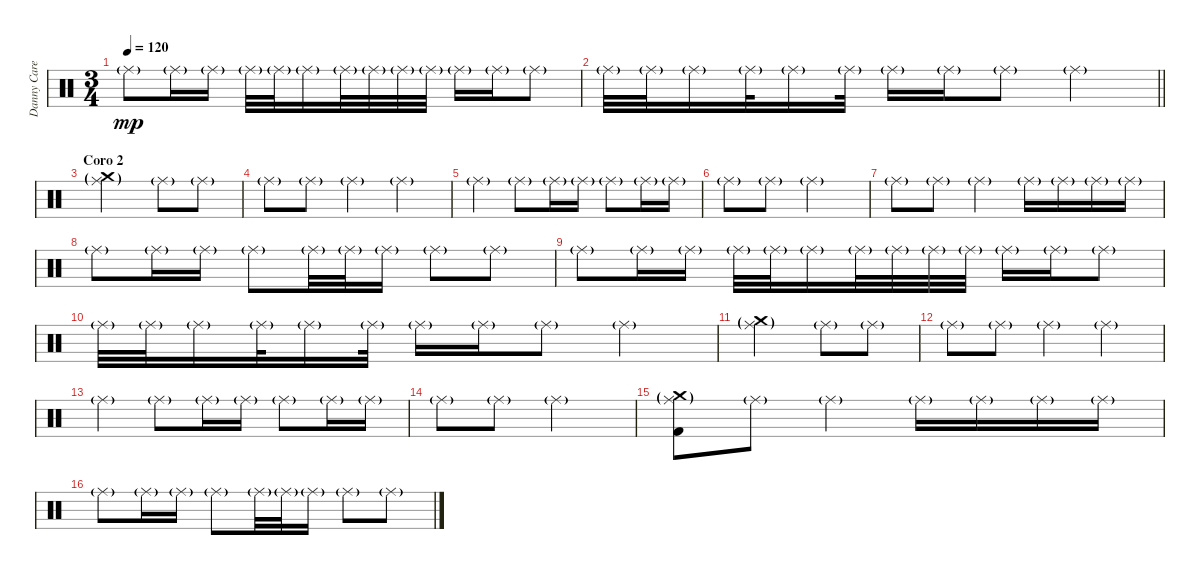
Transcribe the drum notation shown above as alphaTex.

\track ("Danny Carey" "Danny Care") {instrument percussion}
\staff {score}
\articulation defaults
\ts (3 4)
\tempo 120
\clef neutral
\ks c "Ride (middle)"{g}.8{dy mp} "Ride (middle)"{g}.16 "Ride (middle)"{g}.16 "Ride (middle)"{g}.32 "Ride (middle)"{g}.32 "Ride (middle)"{g}.16 "Ride (middle)"{g}.32 "Ride (middle)"{g}.32 "Ride (middle)"{g}.32 "Ride (middle)"{g}.32 "Ride (middle)"{g}.16 "Ride (middle)"{g}.16 "Ride (middle)"{g}.8
|
\barLineRight lightlight "Ride (middle)"{g}.32 "Ride (middle)"{g}.32 "Ride (middle)"{g}.16 "Ride (middle)"{g}.32 "Ride (middle)"{g}.16 "Ride (middle)"{g}.32 "Ride (middle)"{g}.16 "Ride (middle)"{g}.16 "Ride (middle)"{g}.8 "Ride (middle)"{g}.4
|
\section ("" "Coro 2")
("Crash medium (hit)"{g} "Ride (middle)"{g}).2 "Ride (middle)"{g}.8 "Ride (middle)"{g}.8 |
"Ride (middle)"{g}.8 "Ride (middle)"{g}.8 "Ride (middle)"{g}.4 "Ride (middle)"{g}.4 |
"Ride (middle)"{g}.4 "Ride (middle)"{g}.8 "Ride (middle)"{g}.16 "Ride (middle)"{g}.16 "Ride (middle)"{g}.8 "Ride (middle)"{g}.16 "Ride (middle)"{g}.16 |
"Ride (middle)"{g}.8 "Ride (middle)"{g}.8 "Ride (middle)"{g}.2 |
"Ride (middle)"{g}.8 "Ride (middle)"{g}.8 "Ride (middle)"{g}.4 "Ride (middle)"{g}.16 "Ride (middle)"{g}.16 "Ride (middle)"{g}.16 "Ride (middle)"{g}.16 |
"Ride (middle)"{g}.8 "Ride (middle)"{g}.16 "Ride (middle)"{g}.16 "Ride (middle)"{g}.8 "Ride (middle)"{g}.32 "Ride (middle)"{g}.32 "Ride (middle)"{g}.16 "Ride (middle)"{g}.8 "Ride (middle)"{g}.8 |
"Ride (middle)"{g}.8 "Ride (middle)"{g}.16 "Ride (middle)"{g}.16 "Ride (middle)"{g}.32 "Ride (middle)"{g}.32 "Ride (middle)"{g}.16 "Ride (middle)"{g}.32 "Ride (middle)"{g}.32 "Ride (middle)"{g}.32 "Ride (middle)"{g}.32 "Ride (middle)"{g}.16 "Ride (middle)"{g}.16 "Ride (middle)"{g}.8 |
"Ride (middle)"{g}.32 "Ride (middle)"{g}.32 "Ride (middle)"{g}.16 "Ride (middle)"{g}.32 "Ride (middle)"{g}.16 "Ride (middle)"{g}.32 "Ride (middle)"{g}.16 "Ride (middle)"{g}.16 "Ride (middle)"{g}.8 "Ride (middle)"{g}.4 |
("Crash medium (hit)"{g} "Ride (middle)"{g}).2 "Ride (middle)"{g}.8 "Ride (middle)"{g}.8 |
"Ride (middle)"{g}.8 "Ride (middle)"{g}.8 "Ride (middle)"{g}.4 "Ride (middle)"{g}.4 |
"Ride (middle)"{g}.4 "Ride (middle)"{g}.8 "Ride (middle)"{g}.16 "Ride (middle)"{g}.16 "Ride (middle)"{g}.8 "Ride (middle)"{g}.16 "Ride (middle)"{g}.16 |
"Ride (middle)"{g}.8 "Ride (middle)"{g}.8 "Ride (middle)"{g}.2 |
("Crash medium (hit)"{g} "Ride (middle)"{g} "Kick (hit) 2").8 "Ride (middle)"{g}.8 "Ride (middle)"{g}.4 "Ride (middle)"{g}.16 "Ride (middle)"{g}.16 "Ride (middle)"{g}.16 "Ride (middle)"{g}.16 |
"Ride (middle)"{g}.8 "Ride (middle)"{g}.16 "Ride (middle)"{g}.16 "Ride (middle)"{g}.8 "Ride (middle)"{g}.32 "Ride (middle)"{g}.32 "Ride (middle)"{g}.16 "Ride (middle)"{g}.8 "Ride (middle)"{g}.8
